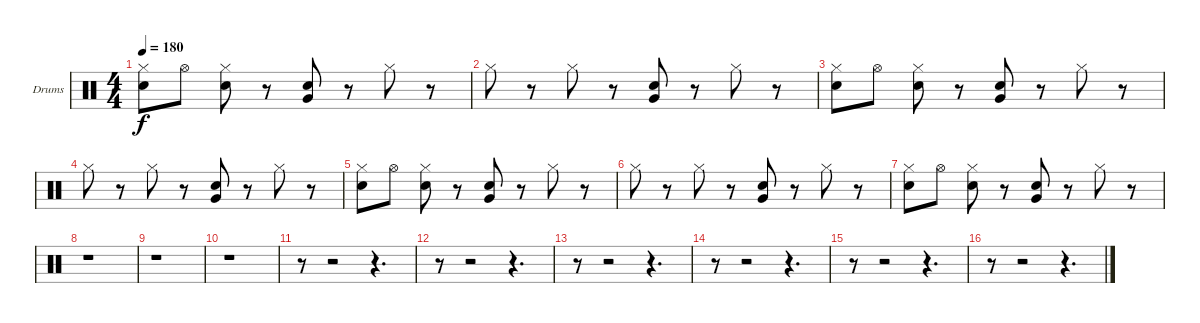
\bracketExtendMode groupsimilarinstruments
\firstSystemTrackNameOrientation horizontal
\otherSystemsTrackNameOrientation horizontal
\track ("Drumkit" "Drums") {instrument percussion}
\staff {score}
\articulation defaults
\ts (4 4)
\tempo 180
\clef neutral
\ks c
("Hi-Hat (closed)" "Snare (hit) 2").8{dy f} "Hi-Hat (open)".8 ("Hi-Hat (closed)" "Snare (hit) 2").8 r.8 ("Snare (hit) 2" "Very Low Tom (hit)").8 r.8 "Hi-Hat (closed)".8 r.8 |
"Hi-Hat (closed)".8 r.8 "Hi-Hat (closed)".8 r.8 ("Snare (hit) 2" "Very Low Tom (hit)").8 r.8 "Hi-Hat (closed)".8 r.8 |
("Hi-Hat (closed)" "Snare (hit) 2").8 "Hi-Hat (open)".8 ("Hi-Hat (closed)" "Snare (hit) 2").8 r.8 ("Snare (hit) 2" "Very Low Tom (hit)").8 r.8 "Hi-Hat (closed)".8 r.8 |
"Hi-Hat (closed)".8 r.8 "Hi-Hat (closed)".8 r.8 ("Snare (hit) 2" "Very Low Tom (hit)").8 r.8 "Hi-Hat (closed)".8 r.8 |
("Hi-Hat (closed)" "Snare (hit) 2").8 "Hi-Hat (open)".8 ("Hi-Hat (closed)" "Snare (hit) 2").8 r.8 ("Snare (hit) 2" "Very Low Tom (hit)").8 r.8 "Hi-Hat (closed)".8 r.8 |
"Hi-Hat (closed)".8 r.8 "Hi-Hat (closed)".8 r.8 ("Snare (hit) 2" "Very Low Tom (hit)").8 r.8 "Hi-Hat (closed)".8 r.8 |
("Hi-Hat (closed)" "Snare (hit) 2").8 "Hi-Hat (open)".8 ("Hi-Hat (closed)" "Snare (hit) 2").8 r.8 ("Snare (hit) 2" "Very Low Tom (hit)").8 r.8 "Hi-Hat (closed)".8 r.8 |
r.1 |
r.1 |
r.1 |
r.8 r.2 r.4{d} |
r.8 r.2 r.4{d} |
r.8 r.2 r.4{d} |
r.8 r.2 r.4{d} |
r.8 r.2 r.4{d} |
r.8 r.2 r.4{d}
